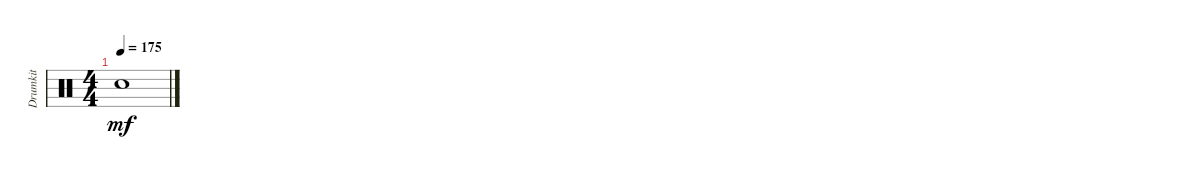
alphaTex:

\track ("Drumkit" "Drumkit") {instrument percussion}
\staff {score}
\articulation defaults
\ts (4 4)
\tempo 175
\clef neutral
\ks c "Snare (hit) 2".1{dy mf}
